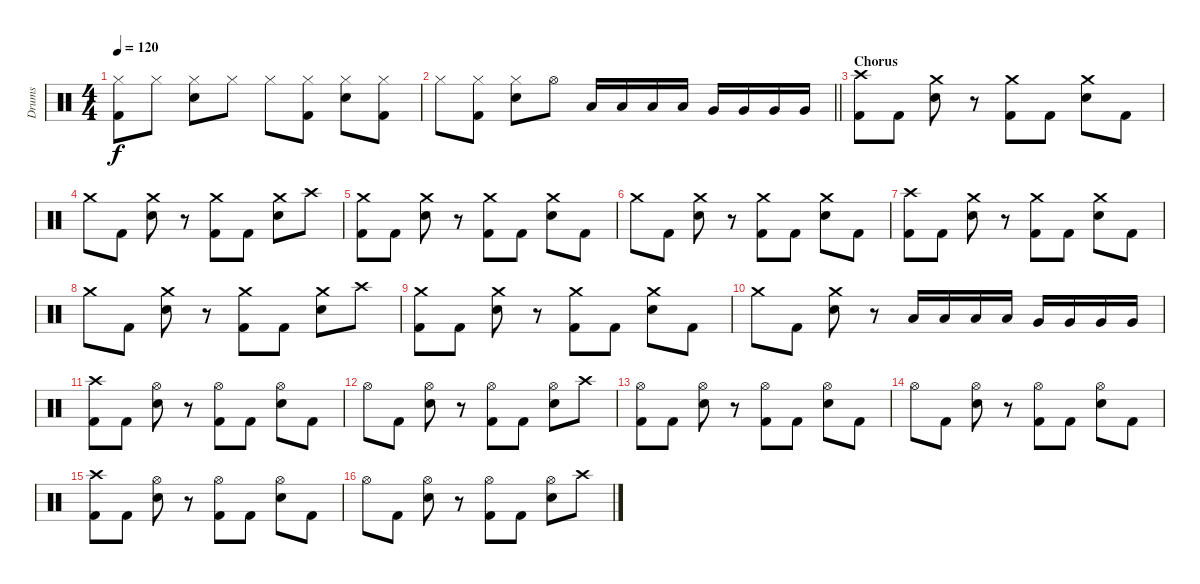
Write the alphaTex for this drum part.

\track ("Drums" "Drums") {instrument percussion}
\staff {score}
\articulation defaults
\ts (4 4)
\tempo 120
\clef neutral
\ks c
("Hi-Hat (closed)" "Kick (hit) 2").8{dy f} "Hi-Hat (closed)".8 ("Hi-Hat (closed)" "Snare (hit) 2").8 "Hi-Hat (closed)".8 "Hi-Hat (closed)".8 ("Hi-Hat (closed)" "Kick (hit) 2").8 ("Hi-Hat (closed)" "Snare (hit) 2").8 ("Hi-Hat (closed)" "Kick (hit) 2").8 |
\barLineRight lightlight "Hi-Hat (closed)".8
("Hi-Hat (closed)" "Kick (hit) 2").8 ("Hi-Hat (closed)" "Snare (hit) 2").8 "Hi-Hat (open)".8 "Low Tom (hit)".16 "Low Tom (hit)".16 "Low Tom (hit)".16 "Low Tom (hit)".16 "Very Low Tom (hit)".16 "Very Low Tom (hit)".16 "Very Low Tom (hit)".16 "Very Low Tom (hit)".16 |
\section ("" "Chorus")
("Crash high (hit)" "Kick (hit) 2").8 "Kick (hit) 2".8 ("Crash medium (hit)" "Snare (hit) 2").8 r.8 ("Crash medium (hit)" "Kick (hit) 2").8 "Kick (hit) 2".8 ("Crash medium (hit)" "Snare (hit) 2").8 "Kick (hit) 2".8 |
"Crash medium (hit)".8 "Kick (hit) 2".8 ("Crash medium (hit)" "Snare (hit) 2").8 r.8 ("Crash medium (hit)" "Kick (hit) 2").8 "Kick (hit) 2".8 ("Crash medium (hit)" "Snare (hit) 2").8 "Crash high (hit)".8 |
("Crash medium (hit)" "Kick (hit) 2").8 "Kick (hit) 2".8 ("Crash medium (hit)" "Snare (hit) 2").8 r.8 ("Crash medium (hit)" "Kick (hit) 2").8 "Kick (hit) 2".8 ("Crash medium (hit)" "Snare (hit) 2").8 "Kick (hit) 2".8 |
"Crash medium (hit)".8 "Kick (hit) 2".8 ("Crash medium (hit)" "Snare (hit) 2").8 r.8 ("Crash medium (hit)" "Kick (hit) 2").8 "Kick (hit) 2".8 ("Crash medium (hit)" "Snare (hit) 2").8 "Kick (hit) 2".8 |
("Crash high (hit)" "Kick (hit) 2").8 "Kick (hit) 2".8 ("Crash medium (hit)" "Snare (hit) 2").8 r.8 ("Crash medium (hit)" "Kick (hit) 2").8 "Kick (hit) 2".8 ("Crash medium (hit)" "Snare (hit) 2").8 "Kick (hit) 2".8 |
"Crash medium (hit)".8 "Kick (hit) 2".8 ("Crash medium (hit)" "Snare (hit) 2").8 r.8 ("Crash medium (hit)" "Kick (hit) 2").8 "Kick (hit) 2".8 ("Crash medium (hit)" "Snare (hit) 2").8 "Crash high (hit)".8 |
("Crash medium (hit)" "Kick (hit) 2").8 "Kick (hit) 2".8 ("Crash medium (hit)" "Snare (hit) 2").8 r.8 ("Crash medium (hit)" "Kick (hit) 2").8 "Kick (hit) 2".8 ("Crash medium (hit)" "Snare (hit) 2").8 "Kick (hit) 2".8 |
"Crash medium (hit)".8 "Kick (hit) 2".8 ("Crash medium (hit)" "Snare (hit) 2").8 r.8 "Low Tom (hit)".16 "Low Tom (hit)".16 "Low Tom (hit)".16 "Low Tom (hit)".16 "Very Low Tom (hit)".16 "Very Low Tom (hit)".16 "Very Low Tom (hit)".16 "Very Low Tom (hit)".16 |
("Crash high (hit)" "Kick (hit) 2").8 "Kick (hit) 2".8 ("Hi-Hat (open)" "Snare (hit) 2").8 r.8 ("Hi-Hat (open)" "Kick (hit) 2").8 "Kick (hit) 2".8 ("Hi-Hat (open)" "Snare (hit) 2").8 "Kick (hit) 2".8 |
"Hi-Hat (open)".8 "Kick (hit) 2".8 ("Hi-Hat (open)" "Snare (hit) 2").8 r.8 ("Hi-Hat (open)" "Kick (hit) 2").8 "Kick (hit) 2".8 ("Hi-Hat (open)" "Snare (hit) 2").8 "Crash high (hit)".8 |
("Hi-Hat (open)" "Kick (hit) 2").8 "Kick (hit) 2".8 ("Hi-Hat (open)" "Snare (hit) 2").8 r.8 ("Hi-Hat (open)" "Kick (hit) 2").8 "Kick (hit) 2".8 ("Hi-Hat (open)" "Snare (hit) 2").8 "Kick (hit) 2".8 |
"Hi-Hat (open)".8 "Kick (hit) 2".8 ("Hi-Hat (open)" "Snare (hit) 2").8 r.8 ("Hi-Hat (open)" "Kick (hit) 2").8 "Kick (hit) 2".8 ("Hi-Hat (open)" "Snare (hit) 2").8 "Kick (hit) 2".8 |
("Crash high (hit)" "Kick (hit) 2").8 "Kick (hit) 2".8 ("Hi-Hat (open)" "Snare (hit) 2").8 r.8 ("Hi-Hat (open)" "Kick (hit) 2").8 "Kick (hit) 2".8 ("Hi-Hat (open)" "Snare (hit) 2").8 "Kick (hit) 2".8 |
"Hi-Hat (open)".8 "Kick (hit) 2".8 ("Hi-Hat (open)" "Snare (hit) 2").8 r.8 ("Hi-Hat (open)" "Kick (hit) 2").8 "Kick (hit) 2".8 ("Hi-Hat (open)" "Snare (hit) 2").8 "Crash high (hit)".8
